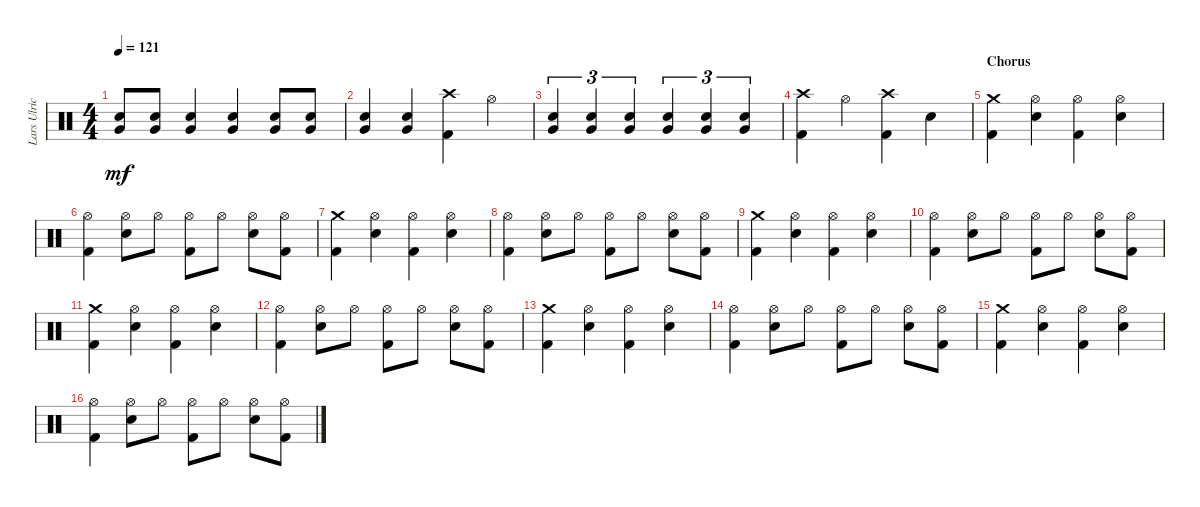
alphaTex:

\track ("Lars Ulrich" "Lars Ulric") {instrument percussion}
\staff {score}
\articulation defaults
\ts (4 4)
\tempo 121
\clef neutral
\ks c
("Snare (hit) 2" "Very Low Tom (hit)").8{dy mf} ("Snare (hit) 2" "Very Low Tom (hit)").8 ("Snare (hit) 2" "Very Low Tom (hit)").4 ("Snare (hit) 2" "Very Low Tom (hit)").4 ("Snare (hit) 2" "Very Low Tom (hit)").8 ("Snare (hit) 2" "Very Low Tom (hit)").8 |
("Very Low Tom (hit)" "Snare (hit) 2").4 ("Very Low Tom (hit)" "Snare (hit) 2").4 ("Kick (hit) 2" "Crash high (hit)").4 "Hi-Hat (open)".4 |
("Snare (hit) 2" "Very Low Tom (hit)").4{tu (3 2)} ("Snare (hit) 2" "Very Low Tom (hit)").4{tu (3 2)} ("Snare (hit) 2" "Very Low Tom (hit)").4{tu (3 2)} ("Snare (hit) 2" "Very Low Tom (hit)").4{tu (3 2)} ("Snare (hit) 2" "Very Low Tom (hit)").4{tu (3 2)} ("Snare (hit) 2" "Very Low Tom (hit)").4{tu (3 2)} |
("Kick (hit) 2" "Crash high (hit)").4 "Hi-Hat (open)".4 ("Crash high (hit)" "Kick (hit) 2").4 "Snare (hit) 2".4 |
\section ("" "Chorus")
("Crash medium (hit)" "Kick (hit) 2").4 ("Hi-Hat (open)" "Snare (hit) 2").4 ("Hi-Hat (open)" "Kick (hit) 2").4 ("Hi-Hat (open)" "Snare (hit) 2").4 |
("Hi-Hat (open)" "Kick (hit) 2").4 ("Hi-Hat (open)" "Snare (hit) 2").8 "Hi-Hat (open)".8 ("Hi-Hat (open)" "Kick (hit) 2").8 "Hi-Hat (open)".8 ("Hi-Hat (open)" "Snare (hit) 2").8 ("Hi-Hat (open)" "Kick (hit) 2").8 |
("Crash medium (hit)" "Kick (hit) 2").4 ("Hi-Hat (open)" "Snare (hit) 2").4 ("Hi-Hat (open)" "Kick (hit) 2").4 ("Hi-Hat (open)" "Snare (hit) 2").4 |
("Hi-Hat (open)" "Kick (hit) 2").4 ("Hi-Hat (open)" "Snare (hit) 2").8 "Hi-Hat (open)".8 ("Hi-Hat (open)" "Kick (hit) 2").8 "Hi-Hat (open)".8 ("Hi-Hat (open)" "Snare (hit) 2").8 ("Hi-Hat (open)" "Kick (hit) 2").8 |
("Crash medium (hit)" "Kick (hit) 2").4 ("Hi-Hat (open)" "Snare (hit) 2").4 ("Hi-Hat (open)" "Kick (hit) 2").4 ("Hi-Hat (open)" "Snare (hit) 2").4 |
("Hi-Hat (open)" "Kick (hit) 2").4 ("Hi-Hat (open)" "Snare (hit) 2").8 "Hi-Hat (open)".8 ("Hi-Hat (open)" "Kick (hit) 2").8 "Hi-Hat (open)".8 ("Hi-Hat (open)" "Snare (hit) 2").8 ("Hi-Hat (open)" "Kick (hit) 2").8 |
("Crash medium (hit)" "Kick (hit) 2").4 ("Hi-Hat (open)" "Snare (hit) 2").4 ("Hi-Hat (open)" "Kick (hit) 2").4 ("Hi-Hat (open)" "Snare (hit) 2").4 |
("Hi-Hat (open)" "Kick (hit) 2").4 ("Hi-Hat (open)" "Snare (hit) 2").8 "Hi-Hat (open)".8 ("Hi-Hat (open)" "Kick (hit) 2").8 "Hi-Hat (open)".8 ("Hi-Hat (open)" "Snare (hit) 2").8 ("Hi-Hat (open)" "Kick (hit) 2").8 |
("Crash medium (hit)" "Kick (hit) 2").4 ("Hi-Hat (open)" "Snare (hit) 2").4 ("Hi-Hat (open)" "Kick (hit) 2").4 ("Hi-Hat (open)" "Snare (hit) 2").4 |
("Hi-Hat (open)" "Kick (hit) 2").4 ("Hi-Hat (open)" "Snare (hit) 2").8 "Hi-Hat (open)".8 ("Hi-Hat (open)" "Kick (hit) 2").8 "Hi-Hat (open)".8 ("Hi-Hat (open)" "Snare (hit) 2").8 ("Hi-Hat (open)" "Kick (hit) 2").8 |
("Crash medium (hit)" "Kick (hit) 2").4 ("Hi-Hat (open)" "Snare (hit) 2").4 ("Hi-Hat (open)" "Kick (hit) 2").4 ("Hi-Hat (open)" "Snare (hit) 2").4 |
("Hi-Hat (open)" "Kick (hit) 2").4 ("Hi-Hat (open)" "Snare (hit) 2").8 "Hi-Hat (open)".8 ("Hi-Hat (open)" "Kick (hit) 2").8 "Hi-Hat (open)".8 ("Hi-Hat (open)" "Snare (hit) 2").8 ("Hi-Hat (open)" "Kick (hit) 2").8
